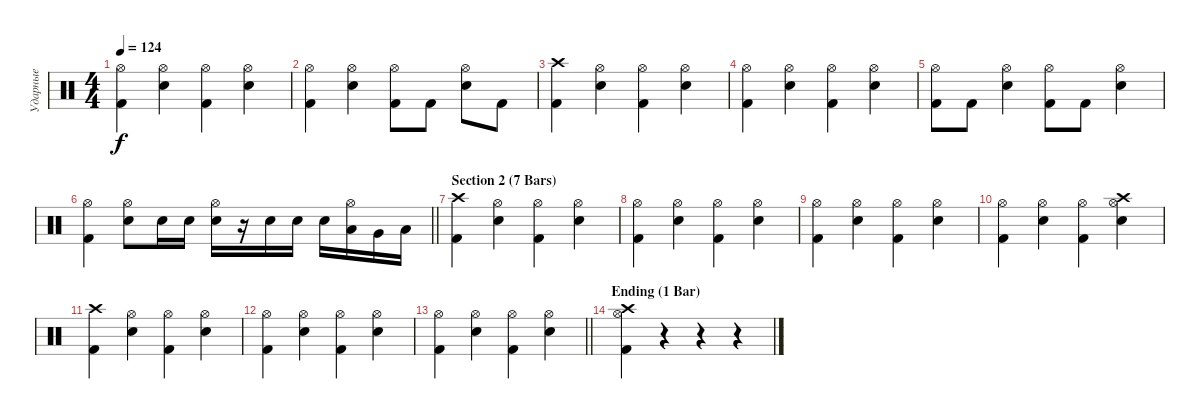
\track ("Ударные" "Ударные") {instrument percussion}
\staff {score}
\articulation defaults
\ts (4 4)
\tempo 124
\clef neutral
\ks c
("Kick (hit) 2" "Hi-Hat (open)").4{dy f} ("Electric Snare (hit)" "Hi-Hat (open)").4 ("Kick (hit) 2" "Hi-Hat (open)").4 ("Electric Snare (hit)" "Hi-Hat (open)").4 |
("Kick (hit) 2" "Hi-Hat (open)").4 ("Electric Snare (hit)" "Hi-Hat (open)").4 ("Kick (hit) 2" "Hi-Hat (open)").8 "Kick (hit) 2".8 ("Electric Snare (hit)" "Hi-Hat (open)").8 "Kick (hit) 2".8 |
("Crash high (hit)" "Kick (hit) 2").4 ("Electric Snare (hit)" "Hi-Hat (open)").4 ("Kick (hit) 2" "Hi-Hat (open)").4 ("Electric Snare (hit)" "Hi-Hat (open)").4 |
("Kick (hit) 2" "Hi-Hat (open)").4 ("Electric Snare (hit)" "Hi-Hat (open)").4 ("Kick (hit) 2" "Hi-Hat (open)").4 ("Electric Snare (hit)" "Hi-Hat (open)").4 |
("Kick (hit) 2" "Hi-Hat (open)").8 "Kick (hit) 2".8 ("Electric Snare (hit)" "Hi-Hat (open)").4 ("Kick (hit) 2" "Hi-Hat (open)").8 "Kick (hit) 2".8 ("Electric Snare (hit)" "Hi-Hat (open)").4 |
\barLineRight lightlight
("Kick (hit) 2" "Hi-Hat (open)").4 ("Electric Snare (hit)" "Hi-Hat (open)").8 "Electric Snare (hit)".16 "Electric Snare (hit)".16 ("Electric Snare (hit)" "Hi-Hat (open)").16 r.16 "Electric Snare (hit)".16 "Electric Snare (hit)".16 "Electric Snare (hit)".16 ("Low Floor Tom (hit)" "Hi-Hat (open)").16 "Very Low Tom (hit)".16 "Low Floor Tom (hit)".16 |
\section ("" "Section 2 (7 Bars)")
("Crash high (hit)" "Kick (hit) 2").4 ("Electric Snare (hit)" "Hi-Hat (open)").4 ("Kick (hit) 2" "Hi-Hat (open)").4 ("Electric Snare (hit)" "Hi-Hat (open)").4 |
("Kick (hit) 2" "Hi-Hat (open)").4 ("Electric Snare (hit)" "Hi-Hat (open)").4 ("Kick (hit) 2" "Hi-Hat (open)").4 ("Electric Snare (hit)" "Hi-Hat (open)").4 |
("Kick (hit) 2" "Hi-Hat (open)").4 ("Electric Snare (hit)" "Hi-Hat (open)").4 ("Kick (hit) 2" "Hi-Hat (open)").4 ("Electric Snare (hit)" "Hi-Hat (open)").4 |
("Kick (hit) 2" "Hi-Hat (open)").4 ("Electric Snare (hit)" "Hi-Hat (open)").4 ("Kick (hit) 2" "Hi-Hat (open)").4 ("Electric Snare (hit)" "Hi-Hat (open)" "Crash high (hit)").4 |
("Crash high (hit)" "Kick (hit) 2").4 ("Electric Snare (hit)" "Hi-Hat (open)").4 ("Kick (hit) 2" "Hi-Hat (open)").4 ("Electric Snare (hit)" "Hi-Hat (open)").4 |
("Kick (hit) 2" "Hi-Hat (open)").4 ("Electric Snare (hit)" "Hi-Hat (open)").4 ("Kick (hit) 2" "Hi-Hat (open)").4 ("Electric Snare (hit)" "Hi-Hat (open)").4 |
\barLineRight lightlight
("Kick (hit) 2" "Hi-Hat (open)").4 ("Electric Snare (hit)" "Hi-Hat (open)").4 ("Kick (hit) 2" "Hi-Hat (open)").4 ("Electric Snare (hit)" "Hi-Hat (open)").4 |
\section ("" "Ending (1 Bar)")
("Crash high (hit)" "Hi-Hat (open)" "Kick (hit) 2").4 r.4 r.4 r.4
